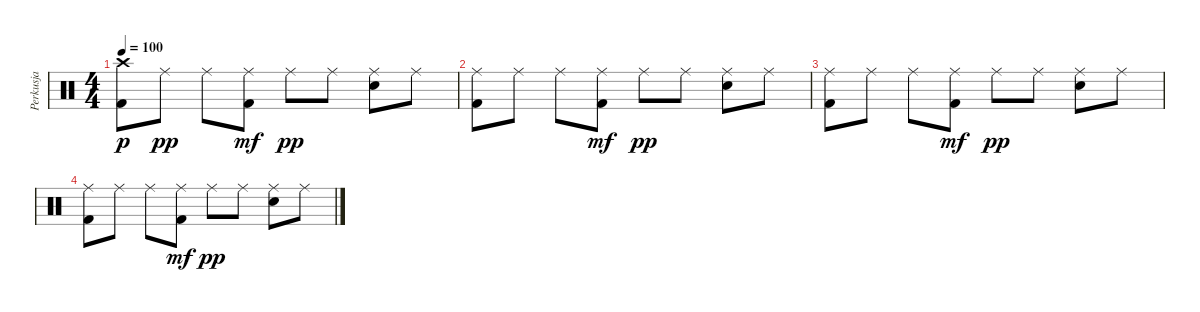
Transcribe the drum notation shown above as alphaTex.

\track ("Perkusja" "Perkusja") {instrument percussion}
\staff {score}
\articulation defaults
\ts (4 4)
\tempo 100
\clef neutral
\ks c
("Kick (hit) 2" "Crash high (hit)").8{dy p} "Ride (middle)".8{dy pp} "Ride (middle)".8 ("Ride (middle)" "Kick (hit) 2").8{dy mf} "Ride (middle)".8{dy pp} "Ride (middle)".8 ("Ride (middle)" "Electric Snare (hit)").8 "Ride (middle)".8 |
("Kick (hit) 2" "Ride (middle)").8 "Ride (middle)".8 "Ride (middle)".8 ("Ride (middle)" "Kick (hit) 2").8{dy mf} "Ride (middle)".8{dy pp} "Ride (middle)".8 ("Ride (middle)" "Electric Snare (hit)").8 "Ride (middle)".8 |
("Kick (hit) 2" "Ride (middle)").8 "Ride (middle)".8 "Ride (middle)".8 ("Ride (middle)" "Kick (hit) 2").8{dy mf} "Ride (middle)".8{dy pp} "Ride (middle)".8 ("Ride (middle)" "Electric Snare (hit)").8 "Ride (middle)".8 |
("Kick (hit) 2" "Ride (middle)").8 "Ride (middle)".8 "Ride (middle)".8 ("Ride (middle)" "Kick (hit) 2").8{dy mf} "Ride (middle)".8{dy pp} "Ride (middle)".8 ("Ride (middle)" "Electric Snare (hit)").8 "Ride (middle)".8
